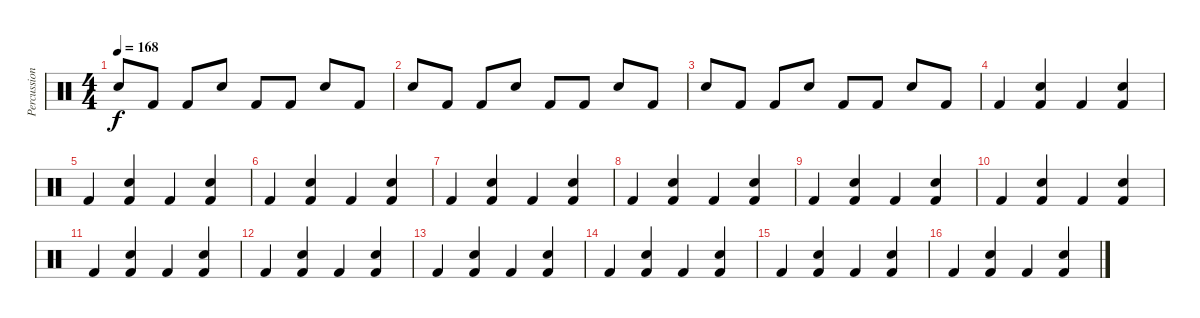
\track ("Percussion" "Percussion") {instrument percussion}
\staff {score}
\articulation defaults
\ts (4 4)
\tempo 168
\clef neutral
\ks c "Electric Snare (hit)".8{dy f} "Kick (hit) 2".8 "Kick (hit) 2".8 "Electric Snare (hit)".8 "Kick (hit) 2".8 "Kick (hit) 2".8 "Electric Snare (hit)".8 "Kick (hit) 2".8
|
"Electric Snare (hit)".8 "Kick (hit) 2".8 "Kick (hit) 2".8 "Electric Snare (hit)".8 "Kick (hit) 2".8 "Kick (hit) 2".8 "Electric Snare (hit)".8 "Kick (hit) 2".8 |
"Electric Snare (hit)".8 "Kick (hit) 2".8 "Kick (hit) 2".8 "Electric Snare (hit)".8 "Kick (hit) 2".8 "Kick (hit) 2".8 "Electric Snare (hit)".8 "Kick (hit) 2".8 |
"Kick (hit) 2".4 ("Snare (hit) 2" "Kick (hit) 2").4 "Kick (hit) 2".4 ("Snare (hit) 2" "Kick (hit) 2").4 |
"Kick (hit) 2".4 ("Snare (hit) 2" "Kick (hit) 2").4 "Kick (hit) 2".4 ("Snare (hit) 2" "Kick (hit) 2").4 |
"Kick (hit) 2".4 ("Snare (hit) 2" "Kick (hit) 2").4 "Kick (hit) 2".4 ("Snare (hit) 2" "Kick (hit) 2").4 |
"Kick (hit) 2".4 ("Snare (hit) 2" "Kick (hit) 2").4 "Kick (hit) 2".4 ("Snare (hit) 2" "Kick (hit) 2").4 |
"Kick (hit) 2".4 ("Snare (hit) 2" "Kick (hit) 2").4 "Kick (hit) 2".4 ("Snare (hit) 2" "Kick (hit) 2").4 |
"Kick (hit) 2".4 ("Snare (hit) 2" "Kick (hit) 2").4 "Kick (hit) 2".4 ("Snare (hit) 2" "Kick (hit) 2").4 |
"Kick (hit) 2".4 ("Snare (hit) 2" "Kick (hit) 2").4 "Kick (hit) 2".4 ("Snare (hit) 2" "Kick (hit) 2").4 |
"Kick (hit) 2".4 ("Snare (hit) 2" "Kick (hit) 2").4 "Kick (hit) 2".4 ("Snare (hit) 2" "Kick (hit) 2").4 |
"Kick (hit) 2".4 ("Snare (hit) 2" "Kick (hit) 2").4 "Kick (hit) 2".4 ("Snare (hit) 2" "Kick (hit) 2").4 |
"Kick (hit) 2".4 ("Snare (hit) 2" "Kick (hit) 2").4 "Kick (hit) 2".4 ("Snare (hit) 2" "Kick (hit) 2").4 |
"Kick (hit) 2".4 ("Snare (hit) 2" "Kick (hit) 2").4 "Kick (hit) 2".4 ("Snare (hit) 2" "Kick (hit) 2").4 |
"Kick (hit) 2".4 ("Snare (hit) 2" "Kick (hit) 2").4 "Kick (hit) 2".4 ("Snare (hit) 2" "Kick (hit) 2").4 |
"Kick (hit) 2".4 ("Snare (hit) 2" "Kick (hit) 2").4 "Kick (hit) 2".4 ("Snare (hit) 2" "Kick (hit) 2").4
